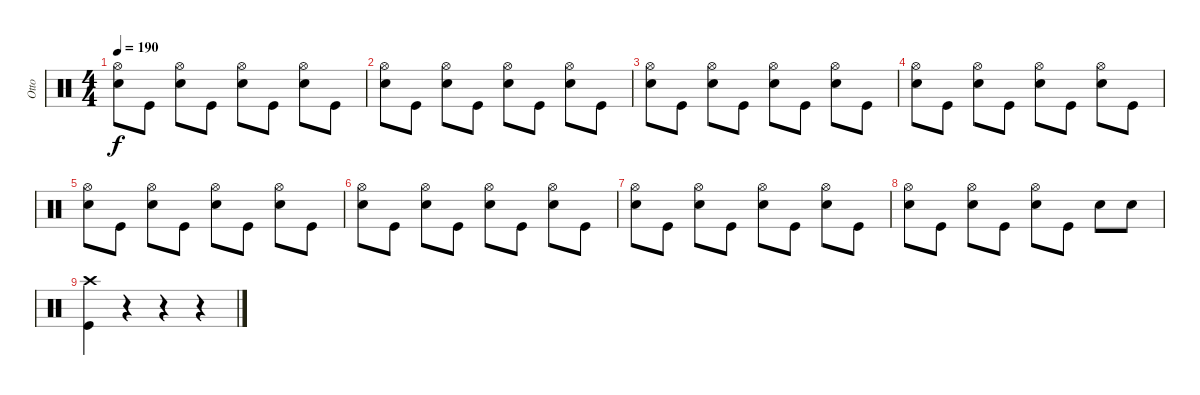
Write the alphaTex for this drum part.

\track ("Otto" "Otto") {instrument percussion}
\staff {score}
\articulation defaults
\ts (4 4)
\tempo 190
\clef neutral
\ks c
("Snare (hit) 2" "Hi-Hat (open)").8{dy f} "Kick (hit)".8 ("Snare (hit) 2" "Hi-Hat (open)").8 "Kick (hit)".8 ("Snare (hit) 2" "Hi-Hat (open)").8 "Kick (hit)".8 ("Snare (hit) 2" "Hi-Hat (open)").8 "Kick (hit)".8 |
("Snare (hit) 2" "Hi-Hat (open)").8 "Kick (hit)".8 ("Snare (hit) 2" "Hi-Hat (open)").8 "Kick (hit)".8 ("Snare (hit) 2" "Hi-Hat (open)").8 "Kick (hit)".8 ("Snare (hit) 2" "Hi-Hat (open)").8 "Kick (hit)".8 |
("Snare (hit) 2" "Hi-Hat (open)").8 "Kick (hit)".8 ("Snare (hit) 2" "Hi-Hat (open)").8 "Kick (hit)".8 ("Snare (hit) 2" "Hi-Hat (open)").8 "Kick (hit)".8 ("Snare (hit) 2" "Hi-Hat (open)").8 "Kick (hit)".8 |
("Snare (hit) 2" "Hi-Hat (open)").8 "Kick (hit)".8 ("Snare (hit) 2" "Hi-Hat (open)").8 "Kick (hit)".8 ("Snare (hit) 2" "Hi-Hat (open)").8 "Kick (hit)".8 ("Snare (hit) 2" "Hi-Hat (open)").8 "Kick (hit)".8 |
("Snare (hit) 2" "Hi-Hat (open)").8 "Kick (hit)".8 ("Snare (hit) 2" "Hi-Hat (open)").8 "Kick (hit)".8 ("Snare (hit) 2" "Hi-Hat (open)").8 "Kick (hit)".8 ("Snare (hit) 2" "Hi-Hat (open)").8 "Kick (hit)".8 |
("Snare (hit) 2" "Hi-Hat (open)").8 "Kick (hit)".8 ("Snare (hit) 2" "Hi-Hat (open)").8 "Kick (hit)".8 ("Snare (hit) 2" "Hi-Hat (open)").8 "Kick (hit)".8 ("Snare (hit) 2" "Hi-Hat (open)").8 "Kick (hit)".8 |
("Snare (hit) 2" "Hi-Hat (open)").8 "Kick (hit)".8 ("Snare (hit) 2" "Hi-Hat (open)").8 "Kick (hit)".8 ("Snare (hit) 2" "Hi-Hat (open)").8 "Kick (hit)".8 ("Snare (hit) 2" "Hi-Hat (open)").8 "Kick (hit)".8 |
("Snare (hit) 2" "Hi-Hat (open)").8 "Kick (hit)".8 ("Snare (hit) 2" "Hi-Hat (open)").8 "Kick (hit)".8 ("Snare (hit) 2" "Hi-Hat (open)").8 "Kick (hit)".8 "Snare (hit) 2".8 "Snare (hit) 2".8 |
("Crash high (hit)" "Kick (hit)").4 r.4 r.4 r.4
